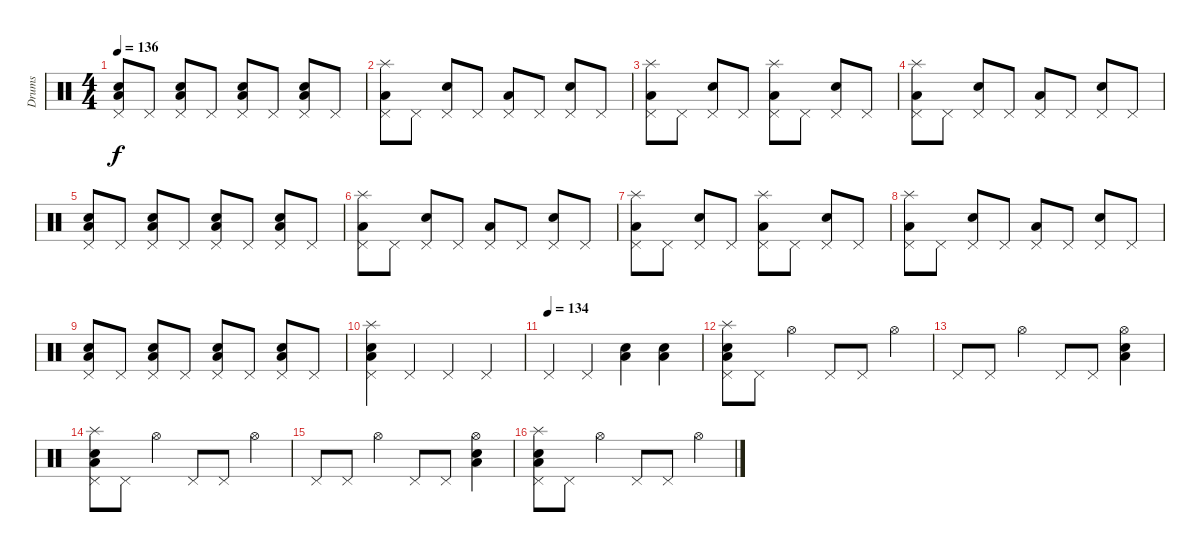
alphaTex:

\track ("Drums" "Drums") {instrument percussion}
\staff {score}
\articulation defaults
\ts (4 4)
\tempo 136
\clef neutral
\ks c
("Electric Snare (hit)" "Low Floor Tom (hit)" "Pedal Hi-Hat (hit)").8{dy f} "Pedal Hi-Hat (hit)".8 ("Electric Snare (hit)" "Low Floor Tom (hit)" "Pedal Hi-Hat (hit)").8 "Pedal Hi-Hat (hit)".8 ("Electric Snare (hit)" "Low Floor Tom (hit)" "Pedal Hi-Hat (hit)").8 "Pedal Hi-Hat (hit)".8 ("Electric Snare (hit)" "Low Floor Tom (hit)" "Pedal Hi-Hat (hit)").8 "Pedal Hi-Hat (hit)".8 |
("Low Floor Tom (hit)" "Pedal Hi-Hat (hit)" "Splash (hit)").8 "Pedal Hi-Hat (hit)".8 ("Electric Snare (hit)" "Pedal Hi-Hat (hit)").8 "Pedal Hi-Hat (hit)".8 ("Low Floor Tom (hit)" "Pedal Hi-Hat (hit)").8 "Pedal Hi-Hat (hit)".8 ("Electric Snare (hit)" "Pedal Hi-Hat (hit)").8 "Pedal Hi-Hat (hit)".8 |
("Low Floor Tom (hit)" "Pedal Hi-Hat (hit)" "Splash (hit)").8 "Pedal Hi-Hat (hit)".8 ("Electric Snare (hit)" "Pedal Hi-Hat (hit)").8 "Pedal Hi-Hat (hit)".8 ("Low Floor Tom (hit)" "Pedal Hi-Hat (hit)" "Splash (hit)").8 "Pedal Hi-Hat (hit)".8 ("Electric Snare (hit)" "Pedal Hi-Hat (hit)").8 "Pedal Hi-Hat (hit)".8 |
("Low Floor Tom (hit)" "Pedal Hi-Hat (hit)" "Splash (hit)").8 "Pedal Hi-Hat (hit)".8 ("Electric Snare (hit)" "Pedal Hi-Hat (hit)").8 "Pedal Hi-Hat (hit)".8 ("Low Floor Tom (hit)" "Pedal Hi-Hat (hit)").8 "Pedal Hi-Hat (hit)".8 ("Electric Snare (hit)" "Pedal Hi-Hat (hit)").8 "Pedal Hi-Hat (hit)".8 |
("Electric Snare (hit)" "Low Floor Tom (hit)" "Pedal Hi-Hat (hit)").8 "Pedal Hi-Hat (hit)".8 ("Electric Snare (hit)" "Low Floor Tom (hit)" "Pedal Hi-Hat (hit)").8 "Pedal Hi-Hat (hit)".8 ("Electric Snare (hit)" "Low Floor Tom (hit)" "Pedal Hi-Hat (hit)").8 "Pedal Hi-Hat (hit)".8 ("Electric Snare (hit)" "Low Floor Tom (hit)" "Pedal Hi-Hat (hit)").8 "Pedal Hi-Hat (hit)".8 |
("Low Floor Tom (hit)" "Pedal Hi-Hat (hit)" "Splash (hit)").8 "Pedal Hi-Hat (hit)".8 ("Electric Snare (hit)" "Pedal Hi-Hat (hit)").8 "Pedal Hi-Hat (hit)".8 ("Low Floor Tom (hit)" "Pedal Hi-Hat (hit)").8 "Pedal Hi-Hat (hit)".8 ("Electric Snare (hit)" "Pedal Hi-Hat (hit)").8 "Pedal Hi-Hat (hit)".8 |
("Low Floor Tom (hit)" "Pedal Hi-Hat (hit)" "Splash (hit)").8 "Pedal Hi-Hat (hit)".8 ("Electric Snare (hit)" "Pedal Hi-Hat (hit)").8 "Pedal Hi-Hat (hit)".8 ("Low Floor Tom (hit)" "Pedal Hi-Hat (hit)" "Splash (hit)").8 "Pedal Hi-Hat (hit)".8 ("Electric Snare (hit)" "Pedal Hi-Hat (hit)").8 "Pedal Hi-Hat (hit)".8 |
("Low Floor Tom (hit)" "Pedal Hi-Hat (hit)" "Splash (hit)").8 "Pedal Hi-Hat (hit)".8 ("Electric Snare (hit)" "Pedal Hi-Hat (hit)").8 "Pedal Hi-Hat (hit)".8 ("Low Floor Tom (hit)" "Pedal Hi-Hat (hit)").8 "Pedal Hi-Hat (hit)".8 ("Electric Snare (hit)" "Pedal Hi-Hat (hit)").8 "Pedal Hi-Hat (hit)".8 |
("Electric Snare (hit)" "Low Floor Tom (hit)" "Pedal Hi-Hat (hit)").8 "Pedal Hi-Hat (hit)".8 ("Electric Snare (hit)" "Low Floor Tom (hit)" "Pedal Hi-Hat (hit)").8 "Pedal Hi-Hat (hit)".8 ("Electric Snare (hit)" "Low Floor Tom (hit)" "Pedal Hi-Hat (hit)").8 "Pedal Hi-Hat (hit)".8 ("Electric Snare (hit)" "Low Floor Tom (hit)" "Pedal Hi-Hat (hit)").8 "Pedal Hi-Hat (hit)".8 |
("Electric Snare (hit)" "Low Floor Tom (hit)" "Pedal Hi-Hat (hit)" "Splash (hit)").4 "Pedal Hi-Hat (hit)".4 "Pedal Hi-Hat (hit)".4 "Pedal Hi-Hat (hit)".4 |
\tempo (134)
"Pedal Hi-Hat (hit)".4 "Pedal Hi-Hat (hit)".4 ("Electric Snare (hit)" "Low Floor Tom (hit)").4 ("Electric Snare (hit)" "Low Floor Tom (hit)").4 |
("Electric Snare (hit)" "Low Floor Tom (hit)" "Pedal Hi-Hat (hit)" "Splash (hit)").8 "Pedal Hi-Hat (hit)".8 "Hi-Hat (open)".4 "Pedal Hi-Hat (hit)".8 "Pedal Hi-Hat (hit)".8 "Hi-Hat (open)".4 |
"Pedal Hi-Hat (hit)".8 "Pedal Hi-Hat (hit)".8 "Hi-Hat (open)".4 "Pedal Hi-Hat (hit)".8 "Pedal Hi-Hat (hit)".8 ("Electric Snare (hit)" "Low Floor Tom (hit)" "Hi-Hat (open)").4 |
("Electric Snare (hit)" "Low Floor Tom (hit)" "Pedal Hi-Hat (hit)" "Splash (hit)").8 "Pedal Hi-Hat (hit)".8 "Hi-Hat (open)".4 "Pedal Hi-Hat (hit)".8 "Pedal Hi-Hat (hit)".8 "Hi-Hat (open)".4 |
"Pedal Hi-Hat (hit)".8 "Pedal Hi-Hat (hit)".8 "Hi-Hat (open)".4 "Pedal Hi-Hat (hit)".8 "Pedal Hi-Hat (hit)".8 ("Electric Snare (hit)" "Low Floor Tom (hit)" "Hi-Hat (open)").4 |
("Electric Snare (hit)" "Low Floor Tom (hit)" "Pedal Hi-Hat (hit)" "Splash (hit)").8 "Pedal Hi-Hat (hit)".8 "Hi-Hat (open)".4 "Pedal Hi-Hat (hit)".8 "Pedal Hi-Hat (hit)".8 "Hi-Hat (open)".4
